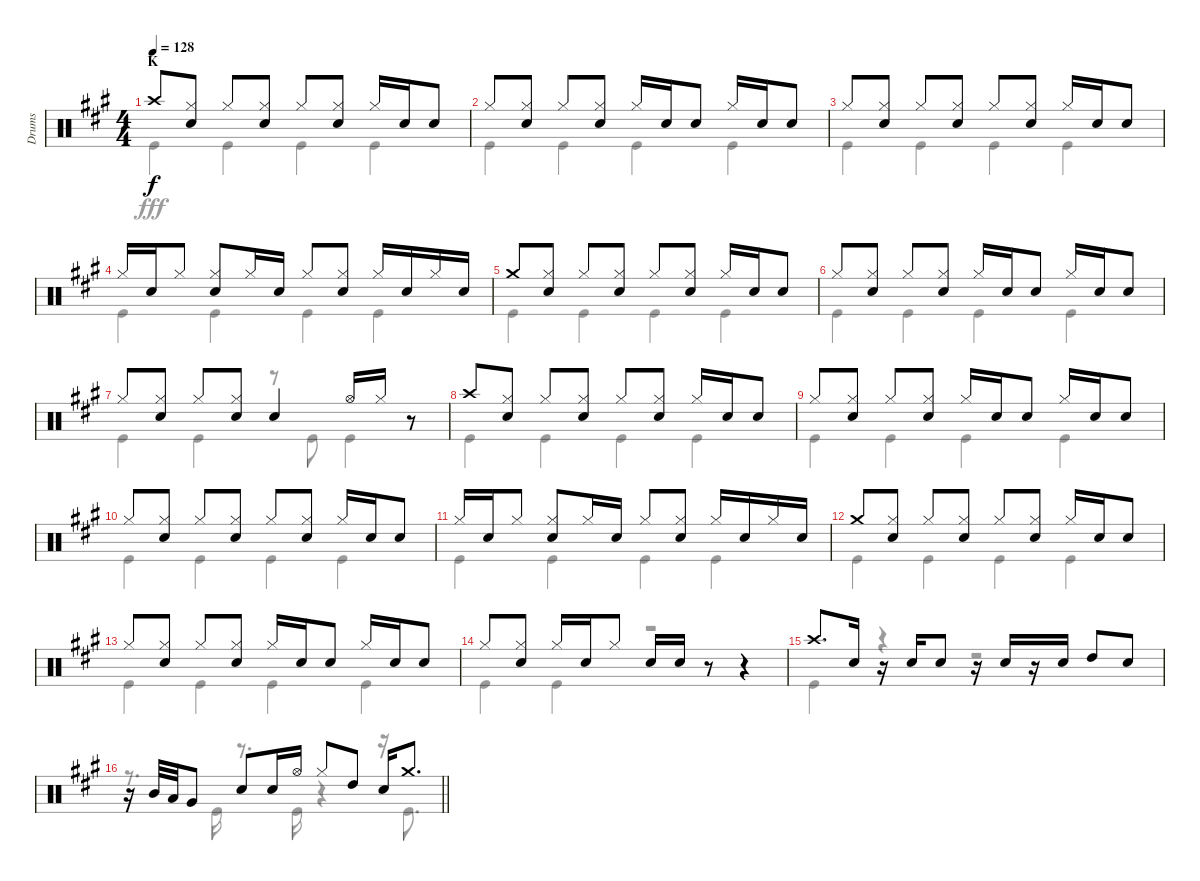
\track ("Drums" "Drums") {instrument percussion}
\staff {score}
\articulation defaults
\voice
\ts (4 4)
\section ("" "K")
\tempo 128
\clef neutral
\ks a "Crash high (hit)".8{dy f}
("Hi-Hat (closed)" "Snare (hit) 2").8 "Hi-Hat (closed)".8 ("Hi-Hat (closed)" "Snare (hit) 2").8 "Hi-Hat (closed)".8 ("Hi-Hat (closed)" "Snare (hit) 2").8 "Hi-Hat (closed)".16 "Snare (hit) 2".16 "Snare (hit) 2".8 |
"Hi-Hat (closed)".8 ("Hi-Hat (closed)" "Snare (hit) 2").8 "Hi-Hat (closed)".8 ("Hi-Hat (closed)" "Snare (hit) 2").8 "Hi-Hat (closed)".16 "Snare (hit) 2".16 "Snare (hit) 2".8 "Hi-Hat (closed)".16 "Snare (hit) 2".16 "Snare (hit) 2".8 |
"Hi-Hat (closed)".8 ("Hi-Hat (closed)" "Snare (hit) 2").8 "Hi-Hat (closed)".8 ("Hi-Hat (closed)" "Snare (hit) 2").8 "Hi-Hat (closed)".8 ("Hi-Hat (closed)" "Snare (hit) 2").8 "Hi-Hat (closed)".16 "Snare (hit) 2".16 "Snare (hit) 2".8 |
"Hi-Hat (closed)".16 "Snare (hit) 2".16 "Hi-Hat (closed)".8 ("Hi-Hat (closed)" "Snare (hit) 2").8 "Hi-Hat (closed)".16 "Snare (hit) 2".16 "Hi-Hat (closed)".8 ("Hi-Hat (closed)" "Snare (hit) 2").8 "Hi-Hat (closed)".16 "Snare (hit) 2".16 "Hi-Hat (closed)".16 "Snare (hit) 2".16 |
"Crash medium (hit)".8 ("Hi-Hat (closed)" "Snare (hit) 2").8 "Hi-Hat (closed)".8 ("Hi-Hat (closed)" "Snare (hit) 2").8 "Hi-Hat (closed)".8 ("Hi-Hat (closed)" "Snare (hit) 2").8 "Hi-Hat (closed)".16 "Snare (hit) 2".16 "Snare (hit) 2".8 |
"Hi-Hat (closed)".8 ("Hi-Hat (closed)" "Snare (hit) 2").8 "Hi-Hat (closed)".8 ("Hi-Hat (closed)" "Snare (hit) 2").8 "Hi-Hat (closed)".16 "Snare (hit) 2".16 "Snare (hit) 2".8 "Hi-Hat (closed)".16 "Snare (hit) 2".16 "Snare (hit) 2".8 |
"Hi-Hat (closed)".8 ("Hi-Hat (closed)" "Snare (hit) 2").8 "Hi-Hat (closed)".8 ("Hi-Hat (closed)" "Snare (hit) 2").8 "Snare (hit) 2".4 "Hi-Hat (open)".16 "Hi-Hat (closed)".16 r.8 |
"Crash high (hit)".8 ("Hi-Hat (closed)" "Snare (hit) 2").8 "Hi-Hat (closed)".8 ("Hi-Hat (closed)" "Snare (hit) 2").8 "Hi-Hat (closed)".8 ("Hi-Hat (closed)" "Snare (hit) 2").8 "Hi-Hat (closed)".16 "Snare (hit) 2".16 "Snare (hit) 2".8 |
"Hi-Hat (closed)".8 ("Hi-Hat (closed)" "Snare (hit) 2").8 "Hi-Hat (closed)".8 ("Hi-Hat (closed)" "Snare (hit) 2").8 "Hi-Hat (closed)".16 "Snare (hit) 2".16 "Snare (hit) 2".8 "Hi-Hat (closed)".16 "Snare (hit) 2".16 "Snare (hit) 2".8 |
"Hi-Hat (closed)".8 ("Hi-Hat (closed)" "Snare (hit) 2").8 "Hi-Hat (closed)".8 ("Hi-Hat (closed)" "Snare (hit) 2").8 "Hi-Hat (closed)".8 ("Hi-Hat (closed)" "Snare (hit) 2").8 "Hi-Hat (closed)".16 "Snare (hit) 2".16 "Snare (hit) 2".8 |
"Hi-Hat (closed)".16 "Snare (hit) 2".16 "Hi-Hat (closed)".8 ("Hi-Hat (closed)" "Snare (hit) 2").8 "Hi-Hat (closed)".16 "Snare (hit) 2".16 "Hi-Hat (closed)".8 ("Hi-Hat (closed)" "Snare (hit) 2").8 "Hi-Hat (closed)".16 "Snare (hit) 2".16 "Hi-Hat (closed)".16 "Snare (hit) 2".16 |
"Crash medium (hit)".8 ("Hi-Hat (closed)" "Snare (hit) 2").8 "Hi-Hat (closed)".8 ("Hi-Hat (closed)" "Snare (hit) 2").8 "Hi-Hat (closed)".8 ("Hi-Hat (closed)" "Snare (hit) 2").8 "Hi-Hat (closed)".16 "Snare (hit) 2".16 "Snare (hit) 2".8 |
"Hi-Hat (closed)".8 ("Hi-Hat (closed)" "Snare (hit) 2").8 "Hi-Hat (closed)".8 ("Hi-Hat (closed)" "Snare (hit) 2").8 "Hi-Hat (closed)".16 "Snare (hit) 2".16 "Snare (hit) 2".8 "Hi-Hat (closed)".16 "Snare (hit) 2".16 "Snare (hit) 2".8 |
"Hi-Hat (closed)".8 ("Hi-Hat (closed)" "Snare (hit) 2").8 "Hi-Hat (closed)".16 "Snare (hit) 2".16 "Hi-Hat (closed)".8 "Snare (hit) 2".16 "Snare (hit) 2".16 r.8 r.4 |
"Crash high (hit)".8{d} "Snare (hit) 2".16 r.16 "Snare (hit) 2".16 "Snare (hit) 2".8 r.16 "Snare (hit) 2".16 r.16 "Snare (hit) 2".16 "High Tom (hit)".8 "Snare (hit) 2".8 |
\barLineRight lightlight
r.16 "Mid Tom (hit)".32 "Low Tom (hit)".32 "Very Low Tom (hit)".8 "Snare (hit) 2".8 "Snare (hit) 2".16 "Hi-Hat (open)".16 "Hi-Hat (closed)".8 "High Tom (hit)".8 "Snare (hit) 2".16 "Crash medium (hit)".8{d}
\voice
\clef neutral
\ottava regular
\simile none
\ks a "Kick (hit)".4{dy fff} "Kick (hit)".4 "Kick (hit)".4 "Kick (hit)".4
|
"Kick (hit)".4 "Kick (hit)".4 "Kick (hit)".4 "Kick (hit)".4 |
"Kick (hit)".4 "Kick (hit)".4 "Kick (hit)".4 "Kick (hit)".4 |
"Kick (hit)".4 "Kick (hit)".4 "Kick (hit)".4 "Kick (hit)".4 |
"Kick (hit)".4 "Kick (hit)".4 "Kick (hit)".4 "Kick (hit)".4 |
"Kick (hit)".4 "Kick (hit)".4 "Kick (hit)".4 "Kick (hit)".4 |
"Kick (hit)".4 "Kick (hit)".4 r.8 "Kick (hit)".8 "Kick (hit)".4 |
"Kick (hit)".4 "Kick (hit)".4 "Kick (hit)".4 "Kick (hit)".4 |
"Kick (hit)".4 "Kick (hit)".4 "Kick (hit)".4 "Kick (hit)".4 |
"Kick (hit)".4 "Kick (hit)".4 "Kick (hit)".4 "Kick (hit)".4 |
"Kick (hit)".4 "Kick (hit)".4 "Kick (hit)".4 "Kick (hit)".4 |
"Kick (hit)".4 "Kick (hit)".4 "Kick (hit)".4 "Kick (hit)".4 |
"Kick (hit)".4 "Kick (hit)".4 "Kick (hit)".4 "Kick (hit)".4 |
"Kick (hit)".4 "Kick (hit)".4 r.2 |
"Kick (hit)".4 r.4 r.2 |
\barLineRight lightlight
r.8{d} "Kick (hit)".16 r.8{d} "Kick (hit)".16 r.4 r.16 "Kick (hit)".8{d}
